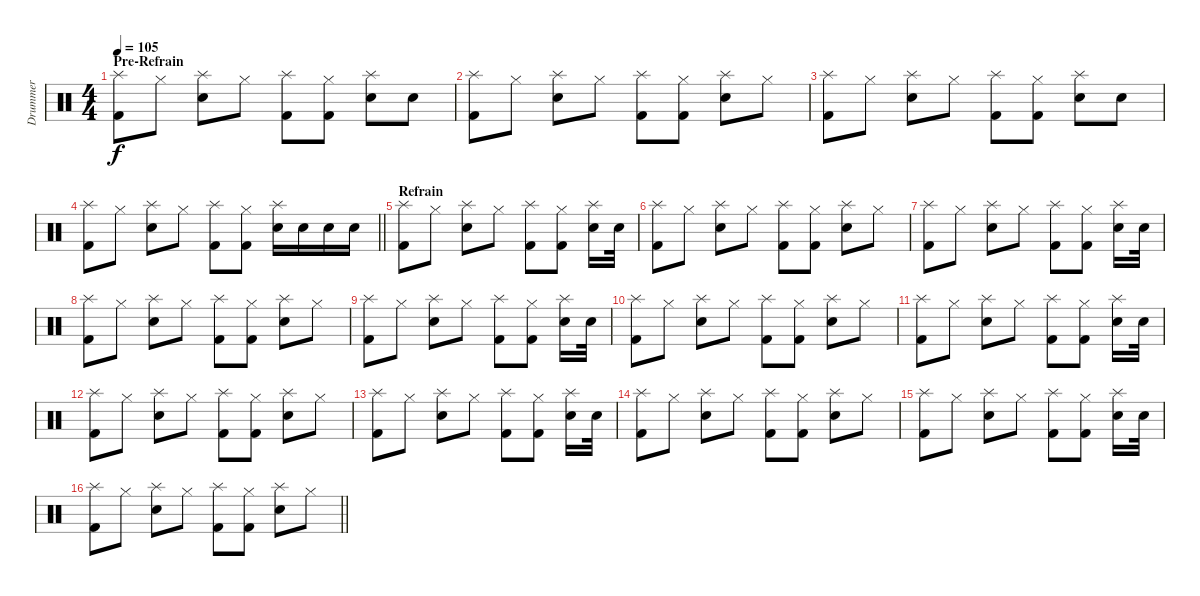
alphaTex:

\track ("Drummer" "Drummer") {instrument percussion}
\staff {score}
\articulation defaults
\ts (4 4)
\section ("" "Pre-Refrain")
\tempo 105
\clef neutral
\ks c
("Splash (hit)" "Kick (hit) 2").8{dy f} "Hi-Hat (closed)".8 ("Splash (hit)" "Snare (hit) 2").8 "Hi-Hat (closed)".8 ("Splash (hit)" "Kick (hit) 2").8 ("Hi-Hat (closed)" "Kick (hit) 2").8 ("Splash (hit)" "Snare (hit) 2").8 "Snare (hit) 2".8 |
("Splash (hit)" "Kick (hit) 2").8 "Hi-Hat (closed)".8 ("Splash (hit)" "Snare (hit) 2").8 "Hi-Hat (closed)".8 ("Splash (hit)" "Kick (hit) 2").8 ("Hi-Hat (closed)" "Kick (hit) 2").8 ("Splash (hit)" "Snare (hit) 2").8 "Hi-Hat (closed)".8 |
("Splash (hit)" "Kick (hit) 2").8 "Hi-Hat (closed)".8 ("Splash (hit)" "Snare (hit) 2").8 "Hi-Hat (closed)".8 ("Splash (hit)" "Kick (hit) 2").8 ("Hi-Hat (closed)" "Kick (hit) 2").8 ("Splash (hit)" "Snare (hit) 2").8 "Snare (hit) 2".8 |
\barLineRight lightlight
("Splash (hit)" "Kick (hit) 2").8 "Hi-Hat (closed)".8 ("Splash (hit)" "Snare (hit) 2").8 "Hi-Hat (closed)".8 ("Splash (hit)" "Kick (hit) 2").8 ("Hi-Hat (closed)" "Kick (hit) 2").8 ("Splash (hit)" "Snare (hit) 2").16 "Snare (hit) 2".16 "Snare (hit) 2".16 "Snare (hit) 2".16 |
\section ("" "Refrain")
("Splash (hit)" "Kick (hit) 2").8 "Hi-Hat (closed)".8 ("Splash (hit)" "Snare (hit) 2").8 "Hi-Hat (closed)".8 ("Splash (hit)" "Kick (hit) 2").8 ("Hi-Hat (closed)" "Kick (hit) 2").8 ("Splash (hit)" "Snare (hit) 2").16 "Snare (hit) 2".32 |
("Splash (hit)" "Kick (hit) 2").8 "Hi-Hat (closed)".8 ("Splash (hit)" "Snare (hit) 2").8 "Hi-Hat (closed)".8 ("Splash (hit)" "Kick (hit) 2").8 ("Hi-Hat (closed)" "Kick (hit) 2").8 ("Splash (hit)" "Snare (hit) 2").8 "Hi-Hat (closed)".8 |
("Splash (hit)" "Kick (hit) 2").8 "Hi-Hat (closed)".8 ("Splash (hit)" "Snare (hit) 2").8 "Hi-Hat (closed)".8 ("Splash (hit)" "Kick (hit) 2").8 ("Hi-Hat (closed)" "Kick (hit) 2").8 ("Splash (hit)" "Snare (hit) 2").16 "Snare (hit) 2".32 |
("Splash (hit)" "Kick (hit) 2").8 "Hi-Hat (closed)".8 ("Splash (hit)" "Snare (hit) 2").8 "Hi-Hat (closed)".8 ("Splash (hit)" "Kick (hit) 2").8 ("Hi-Hat (closed)" "Kick (hit) 2").8 ("Splash (hit)" "Snare (hit) 2").8 "Hi-Hat (closed)".8 |
("Splash (hit)" "Kick (hit) 2").8 "Hi-Hat (closed)".8 ("Splash (hit)" "Snare (hit) 2").8 "Hi-Hat (closed)".8 ("Splash (hit)" "Kick (hit) 2").8 ("Hi-Hat (closed)" "Kick (hit) 2").8 ("Splash (hit)" "Snare (hit) 2").16 "Snare (hit) 2".32 |
("Splash (hit)" "Kick (hit) 2").8 "Hi-Hat (closed)".8 ("Splash (hit)" "Snare (hit) 2").8 "Hi-Hat (closed)".8 ("Splash (hit)" "Kick (hit) 2").8 ("Hi-Hat (closed)" "Kick (hit) 2").8 ("Splash (hit)" "Snare (hit) 2").8 "Hi-Hat (closed)".8 |
("Splash (hit)" "Kick (hit) 2").8 "Hi-Hat (closed)".8 ("Splash (hit)" "Snare (hit) 2").8 "Hi-Hat (closed)".8 ("Splash (hit)" "Kick (hit) 2").8 ("Hi-Hat (closed)" "Kick (hit) 2").8 ("Splash (hit)" "Snare (hit) 2").16 "Snare (hit) 2".32 |
("Splash (hit)" "Kick (hit) 2").8 "Hi-Hat (closed)".8 ("Splash (hit)" "Snare (hit) 2").8 "Hi-Hat (closed)".8 ("Splash (hit)" "Kick (hit) 2").8 ("Hi-Hat (closed)" "Kick (hit) 2").8 ("Splash (hit)" "Snare (hit) 2").8 "Hi-Hat (closed)".8 |
("Splash (hit)" "Kick (hit) 2").8 "Hi-Hat (closed)".8 ("Splash (hit)" "Snare (hit) 2").8 "Hi-Hat (closed)".8 ("Splash (hit)" "Kick (hit) 2").8 ("Hi-Hat (closed)" "Kick (hit) 2").8 ("Splash (hit)" "Snare (hit) 2").16 "Snare (hit) 2".32 |
("Splash (hit)" "Kick (hit) 2").8 "Hi-Hat (closed)".8 ("Splash (hit)" "Snare (hit) 2").8 "Hi-Hat (closed)".8 ("Splash (hit)" "Kick (hit) 2").8 ("Hi-Hat (closed)" "Kick (hit) 2").8 ("Splash (hit)" "Snare (hit) 2").8 "Hi-Hat (closed)".8 |
("Splash (hit)" "Kick (hit) 2").8 "Hi-Hat (closed)".8 ("Splash (hit)" "Snare (hit) 2").8 "Hi-Hat (closed)".8 ("Splash (hit)" "Kick (hit) 2").8 ("Hi-Hat (closed)" "Kick (hit) 2").8 ("Splash (hit)" "Snare (hit) 2").16 "Snare (hit) 2".32 |
\barLineRight lightlight
("Splash (hit)" "Kick (hit) 2").8 "Hi-Hat (closed)".8 ("Splash (hit)" "Snare (hit) 2").8 "Hi-Hat (closed)".8 ("Splash (hit)" "Kick (hit) 2").8 ("Hi-Hat (closed)" "Kick (hit) 2").8 ("Splash (hit)" "Snare (hit) 2").8 "Hi-Hat (closed)".8
